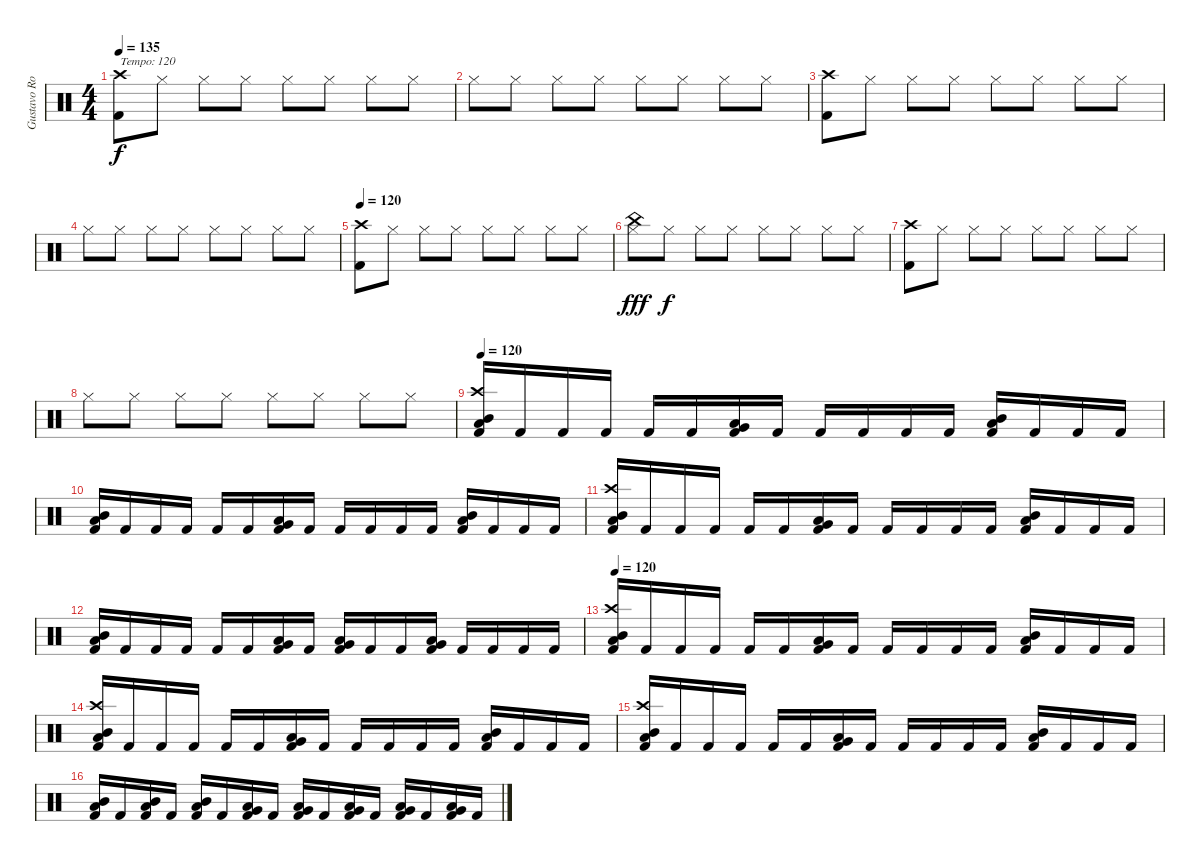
\track ("Gustavo Rowek" "Gustavo Ro") {instrument percussion}
\staff {score}
\articulation defaults
\ts (4 4)
\tempo 135
\tempo 120
\tempo 135
\clef neutral
\ks c
("Kick (hit) 2" "Crash high (hit)").8{txt "Tempo: 120" dy f} "Hi-Hat (closed)".8 "Hi-Hat (closed)".8 "Hi-Hat (closed)".8 "Hi-Hat (closed)".8 "Hi-Hat (closed)".8 "Hi-Hat (closed)".8 "Hi-Hat (closed)".8 |
"Hi-Hat (closed)".8 "Hi-Hat (closed)".8 "Hi-Hat (closed)".8 "Hi-Hat (closed)".8 "Hi-Hat (closed)".8 "Hi-Hat (closed)".8 "Hi-Hat (closed)".8 "Hi-Hat (closed)".8 |
("Kick (hit) 2" "Crash high (hit)").8 "Hi-Hat (closed)".8 "Hi-Hat (closed)".8 "Hi-Hat (closed)".8 "Hi-Hat (closed)".8 "Hi-Hat (closed)".8 "Hi-Hat (closed)".8 "Hi-Hat (closed)".8 |
"Hi-Hat (closed)".8 "Hi-Hat (closed)".8 "Hi-Hat (closed)".8 "Hi-Hat (closed)".8 "Hi-Hat (closed)".8 "Hi-Hat (closed)".8 "Hi-Hat (closed)".8 "Hi-Hat (closed)".8 |
\tempo 120
("Kick (hit) 2" "Crash high (hit)").8 "Hi-Hat (closed)".8 "Hi-Hat (closed)".8 "Hi-Hat (closed)".8 "Hi-Hat (closed)".8 "Hi-Hat (closed)".8 "Hi-Hat (closed)".8 "Hi-Hat (closed)".8 |
("Hi-Hat (closed)" "China (hit)").8{dy fff} "Hi-Hat (closed)".8{dy f} "Hi-Hat (closed)".8 "Hi-Hat (closed)".8 "Hi-Hat (closed)".8 "Hi-Hat (closed)".8 "Hi-Hat (closed)".8 "Hi-Hat (closed)".8 |
("Kick (hit) 2" "Crash high (hit)").8 "Hi-Hat (closed)".8 "Hi-Hat (closed)".8 "Hi-Hat (closed)".8 "Hi-Hat (closed)".8 "Hi-Hat (closed)".8 "Hi-Hat (closed)".8 "Hi-Hat (closed)".8 |
"Hi-Hat (closed)".8 "Hi-Hat (closed)".8 "Hi-Hat (closed)".8 "Hi-Hat (closed)".8 "Hi-Hat (closed)".8 "Hi-Hat (closed)".8 "Hi-Hat (closed)".8 "Hi-Hat (closed)".8 |
\tempo 120
("Kick (hit) 2" "Crash high (hit)" "Mid Tom (hit)" "Low Tom (hit)").16 "Kick (hit) 2".16 "Kick (hit) 2".16 "Kick (hit) 2".16 "Kick (hit) 2".16 "Kick (hit) 2".16 ("Kick (hit) 2" "Low Tom (hit)" "Very Low Tom (hit)").16 "Kick (hit) 2".16 "Kick (hit) 2".16 "Kick (hit) 2".16 "Kick (hit) 2".16 "Kick (hit) 2".16 ("Kick (hit) 2" "Mid Tom (hit)" "Low Tom (hit)").16 "Kick (hit) 2".16 "Kick (hit) 2".16 "Kick (hit) 2".16 |
("Kick (hit) 2" "Mid Tom (hit)" "Low Tom (hit)").16 "Kick (hit) 2".16 "Kick (hit) 2".16 "Kick (hit) 2".16 "Kick (hit) 2".16 "Kick (hit) 2".16 ("Kick (hit) 2" "Low Tom (hit)" "Very Low Tom (hit)").16 "Kick (hit) 2".16 "Kick (hit) 2".16 "Kick (hit) 2".16 "Kick (hit) 2".16 "Kick (hit) 2".16 ("Kick (hit) 2" "Mid Tom (hit)" "Low Tom (hit)").16 "Kick (hit) 2".16 "Kick (hit) 2".16 "Kick (hit) 2".16 |
("Kick (hit) 2" "Crash high (hit)" "Mid Tom (hit)" "Low Tom (hit)").16 "Kick (hit) 2".16 "Kick (hit) 2".16 "Kick (hit) 2".16 "Kick (hit) 2".16 "Kick (hit) 2".16 ("Kick (hit) 2" "Low Tom (hit)" "Very Low Tom (hit)").16 "Kick (hit) 2".16 "Kick (hit) 2".16 "Kick (hit) 2".16 "Kick (hit) 2".16 "Kick (hit) 2".16 ("Kick (hit) 2" "Mid Tom (hit)" "Low Tom (hit)").16 "Kick (hit) 2".16 "Kick (hit) 2".16 "Kick (hit) 2".16 |
("Kick (hit) 2" "Mid Tom (hit)" "Low Tom (hit)").16 "Kick (hit) 2".16 "Kick (hit) 2".16 "Kick (hit) 2".16 "Kick (hit) 2".16 "Kick (hit) 2".16 ("Kick (hit) 2" "Low Tom (hit)" "Very Low Tom (hit)").16 "Kick (hit) 2".16 ("Kick (hit) 2" "Very Low Tom (hit)" "Low Tom (hit)").16 "Kick (hit) 2".16 "Kick (hit) 2".16 ("Kick (hit) 2" "Very Low Tom (hit)" "Low Tom (hit)").16 "Kick (hit) 2".16 "Kick (hit) 2".16 "Kick (hit) 2".16 "Kick (hit) 2".16 |
\tempo 120
("Kick (hit) 2" "Crash high (hit)" "Mid Tom (hit)" "Low Tom (hit)").16 "Kick (hit) 2".16 "Kick (hit) 2".16 "Kick (hit) 2".16 "Kick (hit) 2".16 "Kick (hit) 2".16 ("Kick (hit) 2" "Low Tom (hit)" "Very Low Tom (hit)").16 "Kick (hit) 2".16 "Kick (hit) 2".16 "Kick (hit) 2".16 "Kick (hit) 2".16 "Kick (hit) 2".16 ("Kick (hit) 2" "Mid Tom (hit)" "Low Tom (hit)").16 "Kick (hit) 2".16 "Kick (hit) 2".16 "Kick (hit) 2".16 |
("Kick (hit) 2" "Mid Tom (hit)" "Low Tom (hit)" "Crash high (hit)").16 "Kick (hit) 2".16 "Kick (hit) 2".16 "Kick (hit) 2".16 "Kick (hit) 2".16 "Kick (hit) 2".16 ("Kick (hit) 2" "Low Tom (hit)" "Very Low Tom (hit)").16 "Kick (hit) 2".16 "Kick (hit) 2".16 "Kick (hit) 2".16 "Kick (hit) 2".16 "Kick (hit) 2".16 ("Kick (hit) 2" "Mid Tom (hit)" "Low Tom (hit)").16 "Kick (hit) 2".16 "Kick (hit) 2".16 "Kick (hit) 2".16 |
("Kick (hit) 2" "Crash high (hit)" "Mid Tom (hit)" "Low Tom (hit)").16 "Kick (hit) 2".16 "Kick (hit) 2".16 "Kick (hit) 2".16 "Kick (hit) 2".16 "Kick (hit) 2".16 ("Kick (hit) 2" "Low Tom (hit)" "Very Low Tom (hit)").16 "Kick (hit) 2".16 "Kick (hit) 2".16 "Kick (hit) 2".16 "Kick (hit) 2".16 "Kick (hit) 2".16 ("Kick (hit) 2" "Mid Tom (hit)" "Low Tom (hit)").16 "Kick (hit) 2".16 "Kick (hit) 2".16 "Kick (hit) 2".16 |
("Kick (hit) 2" "Mid Tom (hit)" "Low Tom (hit)").16 "Kick (hit) 2".16 ("Kick (hit) 2" "Mid Tom (hit)" "Low Tom (hit)").16 "Kick (hit) 2".16 ("Kick (hit) 2" "Mid Tom (hit)" "Low Tom (hit)").16 "Kick (hit) 2".16 ("Kick (hit) 2" "Low Tom (hit)" "Very Low Tom (hit)").16 "Kick (hit) 2".16 ("Kick (hit) 2" "Low Tom (hit)" "Very Low Tom (hit)").16 "Kick (hit) 2".16 ("Kick (hit) 2" "Low Tom (hit)" "Very Low Tom (hit)").16 "Kick (hit) 2".16 ("Kick (hit) 2" "Very Low Tom (hit)" "Low Floor Tom (hit)").16 "Kick (hit) 2".16 ("Kick (hit) 2" "Very Low Tom (hit)" "Low Floor Tom (hit)").16 "Kick (hit) 2".16
